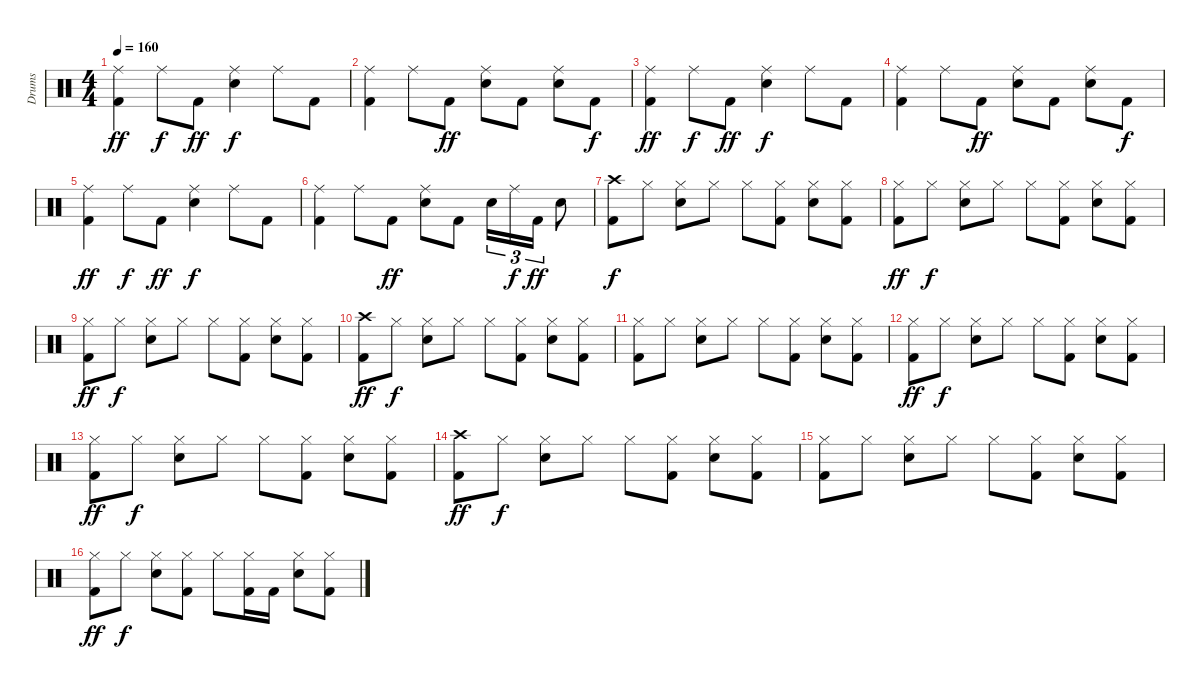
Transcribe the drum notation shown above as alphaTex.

\track ("Drums" "Drums") {instrument percussion}
\staff {score}
\articulation defaults
\ts (4 4)
\tempo 160
\clef neutral
\ks c
("Ride (middle)" "Kick (hit) 2").4{dy ff} "Ride (middle)".8{dy f} "Kick (hit) 2".8{dy ff} ("Ride (middle)" "Snare (hit) 2").4{dy f} "Ride (middle)".8 "Kick (hit) 2".8 |
("Ride (middle)" "Kick (hit) 2").4 "Ride (middle)".8 "Kick (hit) 2".8{dy ff} ("Ride (middle)" "Snare (hit) 2").8 "Kick (hit) 2".8 ("Ride (middle)" "Snare (hit) 2").8 "Kick (hit) 2".8{dy f} |
("Ride (middle)" "Kick (hit) 2").4{dy ff} "Ride (middle)".8{dy f} "Kick (hit) 2".8{dy ff} ("Ride (middle)" "Snare (hit) 2").4{dy f} "Ride (middle)".8 "Kick (hit) 2".8 |
("Ride (middle)" "Kick (hit) 2").4 "Ride (middle)".8 "Kick (hit) 2".8{dy ff} ("Ride (middle)" "Snare (hit) 2").8 "Kick (hit) 2".8 ("Ride (middle)" "Snare (hit) 2").8 "Kick (hit) 2".8{dy f} |
("Ride (middle)" "Kick (hit) 2").4{dy ff} "Ride (middle)".8{dy f} "Kick (hit) 2".8{dy ff} ("Ride (middle)" "Snare (hit) 2").4{dy f} "Ride (middle)".8 "Kick (hit) 2".8 |
("Ride (middle)" "Kick (hit) 2").4 "Ride (middle)".8 "Kick (hit) 2".8{dy ff} ("Ride (middle)" "Snare (hit) 2").8 "Kick (hit) 2".8 "Snare (hit) 2".16{tu (3 2)} "Ride (middle)".16{tu (3 2) dy f} "Kick (hit) 2".16{tu (3 2) dy ff} "Snare (hit) 2".8 |
("Crash high (hit)" "Kick (hit) 2").8{dy f} "Hi-Hat (closed)".8 ("Hi-Hat (closed)" "Snare (hit) 2").8 "Hi-Hat (closed)".8 "Hi-Hat (closed)".8 ("Hi-Hat (closed)" "Kick (hit) 2").8 ("Hi-Hat (closed)" "Snare (hit) 2").8 ("Hi-Hat (closed)" "Kick (hit) 2").8 |
("Hi-Hat (closed)" "Kick (hit) 2").8{dy ff} "Hi-Hat (closed)".8{dy f} ("Hi-Hat (closed)" "Snare (hit) 2").8 "Hi-Hat (closed)".8 "Hi-Hat (closed)".8 ("Hi-Hat (closed)" "Kick (hit) 2").8 ("Hi-Hat (closed)" "Snare (hit) 2").8 ("Hi-Hat (closed)" "Kick (hit) 2").8 |
("Hi-Hat (closed)" "Kick (hit) 2").8{dy ff} "Hi-Hat (closed)".8{dy f} ("Hi-Hat (closed)" "Snare (hit) 2").8 "Hi-Hat (closed)".8 "Hi-Hat (closed)".8 ("Hi-Hat (closed)" "Kick (hit) 2").8 ("Hi-Hat (closed)" "Snare (hit) 2").8 ("Hi-Hat (closed)" "Kick (hit) 2").8 |
("Crash high (hit)" "Kick (hit) 2").8{dy ff} "Hi-Hat (closed)".8{dy f} ("Hi-Hat (closed)" "Snare (hit) 2").8 "Hi-Hat (closed)".8 "Hi-Hat (closed)".8 ("Hi-Hat (closed)" "Kick (hit) 2").8 ("Hi-Hat (closed)" "Snare (hit) 2").8 ("Hi-Hat (closed)" "Kick (hit) 2").8 |
("Hi-Hat (closed)" "Kick (hit) 2").8 "Hi-Hat (closed)".8 ("Hi-Hat (closed)" "Snare (hit) 2").8 "Hi-Hat (closed)".8 "Hi-Hat (closed)".8 ("Hi-Hat (closed)" "Kick (hit) 2").8 ("Hi-Hat (closed)" "Snare (hit) 2").8 ("Hi-Hat (closed)" "Kick (hit) 2").8 |
("Hi-Hat (closed)" "Kick (hit) 2").8{dy ff} "Hi-Hat (closed)".8{dy f} ("Hi-Hat (closed)" "Snare (hit) 2").8 "Hi-Hat (closed)".8 "Hi-Hat (closed)".8 ("Hi-Hat (closed)" "Kick (hit) 2").8 ("Hi-Hat (closed)" "Snare (hit) 2").8 ("Hi-Hat (closed)" "Kick (hit) 2").8 |
("Hi-Hat (closed)" "Kick (hit) 2").8{dy ff} "Hi-Hat (closed)".8{dy f} ("Hi-Hat (closed)" "Snare (hit) 2").8 "Hi-Hat (closed)".8 "Hi-Hat (closed)".8 ("Hi-Hat (closed)" "Kick (hit) 2").8 ("Hi-Hat (closed)" "Snare (hit) 2").8 ("Hi-Hat (closed)" "Kick (hit) 2").8 |
("Crash high (hit)" "Kick (hit) 2").8{dy ff} "Hi-Hat (closed)".8{dy f} ("Hi-Hat (closed)" "Snare (hit) 2").8 "Hi-Hat (closed)".8 "Hi-Hat (closed)".8 ("Hi-Hat (closed)" "Kick (hit) 2").8 ("Hi-Hat (closed)" "Snare (hit) 2").8 ("Hi-Hat (closed)" "Kick (hit) 2").8 |
("Hi-Hat (closed)" "Kick (hit) 2").8 "Hi-Hat (closed)".8 ("Hi-Hat (closed)" "Snare (hit) 2").8 "Hi-Hat (closed)".8 "Hi-Hat (closed)".8 ("Hi-Hat (closed)" "Kick (hit) 2").8 ("Hi-Hat (closed)" "Snare (hit) 2").8 ("Hi-Hat (closed)" "Kick (hit) 2").8 |
("Hi-Hat (closed)" "Kick (hit) 2").8{dy ff} "Hi-Hat (closed)".8{dy f} ("Hi-Hat (closed)" "Snare (hit) 2").8 ("Kick (hit) 2" "Hi-Hat (closed)").8 "Hi-Hat (closed)".8 ("Hi-Hat (closed)" "Kick (hit) 2").16 "Kick (hit) 2".16 ("Hi-Hat (closed)" "Snare (hit) 2").8 ("Hi-Hat (closed)" "Kick (hit) 2").8
